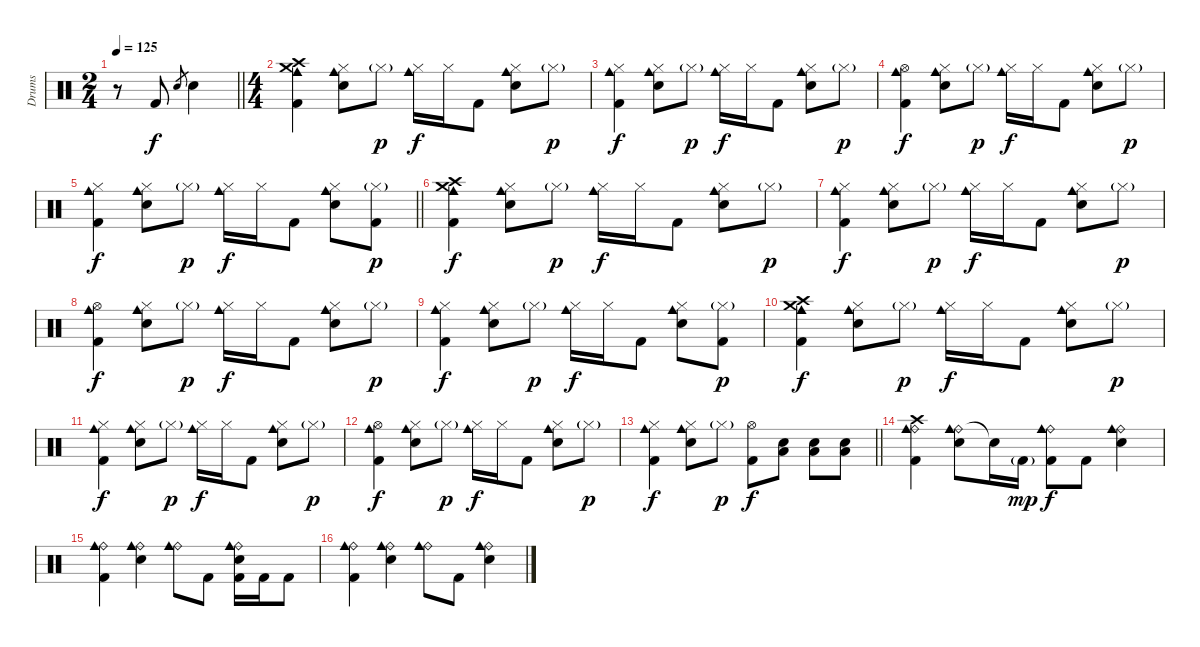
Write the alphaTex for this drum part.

\track ("Drums" "Drums") {instrument percussion}
\staff {score}
\articulation defaults
\ts (2 4)
\tempo 125
\clef neutral
\barLineRight lightlight
\ks c
r.8{dy f} "Kick (hit) 2".8 "Electric Snare (hit)".8{gr} "Electric Snare (hit)".4 |
\ts (4 4)
("Crash high (hit)" "Crash medium (hit)" "Cowbell medium (hit)" "Kick (hit) 2").4 ("Hi-Hat (closed)" "Cowbell medium (hit)" "Electric Snare (hit)").8 "Hi-Hat (closed)"{g}.8{dy p} ("Hi-Hat (closed)" "Cowbell medium (hit)").16{dy f} "Hi-Hat (closed)".16 "Kick (hit) 2".8 ("Hi-Hat (closed)" "Cowbell medium (hit)" "Electric Snare (hit)").8 "Hi-Hat (closed)"{g}.8{dy p} |
("Hi-Hat (closed)" "Cowbell medium (hit)" "Kick (hit) 2").4{dy f} ("Hi-Hat (closed)" "Cowbell medium (hit)" "Electric Snare (hit)").8 "Hi-Hat (closed)"{g}.8{dy p} ("Hi-Hat (closed)" "Cowbell medium (hit)").16{dy f} "Hi-Hat (closed)".16 "Kick (hit) 2".8 ("Hi-Hat (closed)" "Cowbell medium (hit)" "Electric Snare (hit)").8 "Hi-Hat (closed)"{g}.8{dy p} |
("Hi-Hat (open)" "Cowbell medium (hit)" "Kick (hit) 2").4{dy f} ("Hi-Hat (closed)" "Cowbell medium (hit)" "Electric Snare (hit)").8 "Hi-Hat (closed)"{g}.8{dy p} ("Hi-Hat (closed)" "Cowbell medium (hit)").16{dy f} "Hi-Hat (closed)".16 "Kick (hit) 2".8 ("Hi-Hat (closed)" "Cowbell medium (hit)" "Electric Snare (hit)").8 "Hi-Hat (closed)"{g}.8{dy p} |
\barLineRight lightlight
("Hi-Hat (closed)" "Cowbell medium (hit)" "Kick (hit) 2").4{dy f} ("Hi-Hat (closed)" "Cowbell medium (hit)" "Electric Snare (hit)").8 "Hi-Hat (closed)"{g}.8{dy p} ("Hi-Hat (closed)" "Cowbell medium (hit)").16{dy f} "Hi-Hat (closed)".16 "Kick (hit) 2".8 ("Hi-Hat (closed)" "Cowbell medium (hit)" "Electric Snare (hit)").8 ("Hi-Hat (closed)"{g} "Kick (hit) 2").8{dy p} |
("Crash high (hit)" "Crash medium (hit)" "Cowbell medium (hit)" "Kick (hit) 2").4{dy f} ("Hi-Hat (closed)" "Cowbell medium (hit)" "Electric Snare (hit)").8 "Hi-Hat (closed)"{g}.8{dy p} ("Hi-Hat (closed)" "Cowbell medium (hit)").16{dy f} "Hi-Hat (closed)".16 "Kick (hit) 2".8 ("Hi-Hat (closed)" "Cowbell medium (hit)" "Electric Snare (hit)").8 "Hi-Hat (closed)"{g}.8{dy p} |
("Hi-Hat (closed)" "Cowbell medium (hit)" "Kick (hit) 2").4{dy f} ("Hi-Hat (closed)" "Cowbell medium (hit)" "Electric Snare (hit)").8 "Hi-Hat (closed)"{g}.8{dy p} ("Hi-Hat (closed)" "Cowbell medium (hit)").16{dy f} "Hi-Hat (closed)".16 "Kick (hit) 2".8 ("Hi-Hat (closed)" "Cowbell medium (hit)" "Electric Snare (hit)").8 "Hi-Hat (closed)"{g}.8{dy p} |
("Hi-Hat (open)" "Cowbell medium (hit)" "Kick (hit) 2").4{dy f} ("Hi-Hat (closed)" "Cowbell medium (hit)" "Electric Snare (hit)").8 "Hi-Hat (closed)"{g}.8{dy p} ("Hi-Hat (closed)" "Cowbell medium (hit)").16{dy f} "Hi-Hat (closed)".16 "Kick (hit) 2".8 ("Hi-Hat (closed)" "Cowbell medium (hit)" "Electric Snare (hit)").8 "Hi-Hat (closed)"{g}.8{dy p} |
("Hi-Hat (closed)" "Cowbell medium (hit)" "Kick (hit) 2").4{dy f} ("Hi-Hat (closed)" "Cowbell medium (hit)" "Electric Snare (hit)").8 "Hi-Hat (closed)"{g}.8{dy p} ("Hi-Hat (closed)" "Cowbell medium (hit)").16{dy f} "Hi-Hat (closed)".16 "Kick (hit) 2".8 ("Hi-Hat (closed)" "Cowbell medium (hit)" "Electric Snare (hit)").8 ("Hi-Hat (closed)"{g} "Kick (hit) 2").8{dy p} |
("Crash high (hit)" "Crash medium (hit)" "Cowbell medium (hit)" "Kick (hit) 2").4{dy f} ("Hi-Hat (closed)" "Cowbell medium (hit)" "Electric Snare (hit)").8 "Hi-Hat (closed)"{g}.8{dy p} ("Hi-Hat (closed)" "Cowbell medium (hit)").16{dy f} "Hi-Hat (closed)".16 "Kick (hit) 2".8 ("Hi-Hat (closed)" "Cowbell medium (hit)" "Electric Snare (hit)").8 "Hi-Hat (closed)"{g}.8{dy p} |
("Hi-Hat (closed)" "Cowbell medium (hit)" "Kick (hit) 2").4{dy f} ("Hi-Hat (closed)" "Cowbell medium (hit)" "Electric Snare (hit)").8 "Hi-Hat (closed)"{g}.8{dy p} ("Hi-Hat (closed)" "Cowbell medium (hit)").16{dy f} "Hi-Hat (closed)".16 "Kick (hit) 2".8 ("Hi-Hat (closed)" "Cowbell medium (hit)" "Electric Snare (hit)").8 "Hi-Hat (closed)"{g}.8{dy p} |
("Hi-Hat (open)" "Cowbell medium (hit)" "Kick (hit) 2").4{dy f} ("Hi-Hat (closed)" "Cowbell medium (hit)" "Electric Snare (hit)").8 "Hi-Hat (closed)"{g}.8{dy p} ("Hi-Hat (closed)" "Cowbell medium (hit)").16{dy f} "Hi-Hat (closed)".16 "Kick (hit) 2".8 ("Hi-Hat (closed)" "Cowbell medium (hit)" "Electric Snare (hit)").8 "Hi-Hat (closed)"{g}.8{dy p} |
\barLineRight lightlight
("Hi-Hat (closed)" "Cowbell medium (hit)" "Kick (hit) 2").4{dy f} ("Hi-Hat (closed)" "Cowbell medium (hit)" "Electric Snare (hit)").8 "Hi-Hat (closed)"{g}.8{dy p} ("Hi-Hat (open)" "Kick (hit) 2").8{dy f} ("Low Tom (hit)" "Electric Snare (hit)").8 ("Low Tom (hit)" "Electric Snare (hit)").8 ("Low Tom (hit)" "Electric Snare (hit)").8 |
("Crash high (hit)" "Ride (bell)" "Cowbell medium (hit)" "Kick (hit) 2").4 ("Ride (bell)" "Cowbell medium (hit)" "Electric Snare (hit)").8 "Snare (hit)"{t}.16 "Kick (hit) 2"{g}.16{dy mp} ("Ride (bell)" "Cowbell medium (hit)" "Kick (hit) 2").8{dy f} "Kick (hit) 2".8 ("Ride (bell)" "Cowbell medium (hit)" "Electric Snare (hit)").4 |
("Ride (bell)" "Cowbell medium (hit)" "Kick (hit) 2").4 ("Ride (bell)" "Cowbell medium (hit)" "Electric Snare (hit)").4 ("Ride (bell)" "Cowbell medium (hit)").8 "Kick (hit) 2".8 ("Ride (bell)" "Cowbell medium (hit)" "Electric Snare (hit)" "Kick (hit) 2").16 "Kick (hit) 2".16 "Kick (hit) 2".8 |
("Ride (bell)" "Cowbell medium (hit)" "Kick (hit) 2").4 ("Ride (bell)" "Cowbell medium (hit)" "Electric Snare (hit)").4 ("Ride (bell)" "Cowbell medium (hit)").8 "Kick (hit) 2".8 ("Ride (bell)" "Cowbell medium (hit)" "Electric Snare (hit)").4
